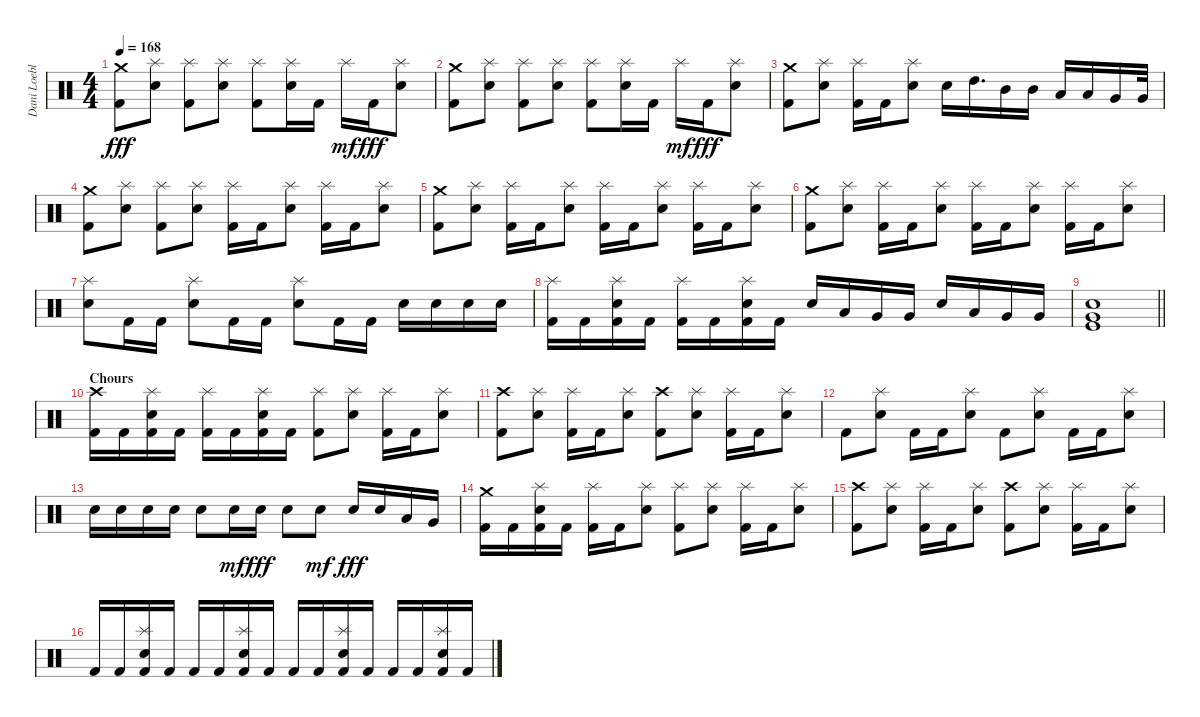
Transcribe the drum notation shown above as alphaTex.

\track ("Dani Loeble" "Dani Loebl") {instrument percussion}
\staff {score}
\articulation defaults
\ts (4 4)
\tempo 168
\clef neutral
\ks c
("Crash medium (hit)" "Kick (hit) 2").8{dy fff} ("Splash (hit)" "Electric Snare (hit)").8 ("Splash (hit)" "Kick (hit) 2").8 ("Splash (hit)" "Electric Snare (hit)").8 ("Splash (hit)" "Kick (hit) 2").8 ("Splash (hit)" "Electric Snare (hit)").16 "Kick (hit) 2".16 "Splash (hit)".16{dy mf} "Kick (hit) 2".16{dy fff} ("Splash (hit)" "Electric Snare (hit)").8 |
("Crash medium (hit)" "Kick (hit) 2").8 ("Splash (hit)" "Electric Snare (hit)").8 ("Splash (hit)" "Kick (hit) 2").8 ("Splash (hit)" "Electric Snare (hit)").8 ("Splash (hit)" "Kick (hit) 2").8 ("Splash (hit)" "Electric Snare (hit)").16 "Kick (hit) 2".16 "Splash (hit)".16{dy mf} "Kick (hit) 2".16{dy fff} ("Splash (hit)" "Electric Snare (hit)").8 |
("Crash medium (hit)" "Kick (hit) 2").8 ("Splash (hit)" "Electric Snare (hit)").8 ("Splash (hit)" "Kick (hit) 2").16 "Kick (hit) 2".16 ("Splash (hit)" "Electric Snare (hit)").8 "Electric Snare (hit)".16 "High Tom (hit)".16{d} "Mid Tom (hit)".16 "Mid Tom (hit)".16 "Low Tom (hit)".16 "Low Tom (hit)".16 "Very Low Tom (hit)".16 "Very Low Tom (hit)".32 |
("Crash medium (hit)" "Kick (hit) 2").8 ("Splash (hit)" "Electric Snare (hit)").8 ("Splash (hit)" "Kick (hit) 2").8 ("Splash (hit)" "Electric Snare (hit)").8 ("Splash (hit)" "Kick (hit) 2").16 "Kick (hit) 2".16 ("Splash (hit)" "Electric Snare (hit)").8 ("Splash (hit)" "Kick (hit) 2").16 "Kick (hit) 2".16 ("Splash (hit)" "Electric Snare (hit)").8 |
("Crash medium (hit)" "Kick (hit) 2").8 ("Splash (hit)" "Electric Snare (hit)").8 ("Splash (hit)" "Kick (hit) 2").16 "Kick (hit) 2".16 ("Splash (hit)" "Electric Snare (hit)").8 ("Splash (hit)" "Kick (hit) 2").16 "Kick (hit) 2".16 ("Splash (hit)" "Electric Snare (hit)").8 ("Splash (hit)" "Kick (hit) 2").16 "Kick (hit) 2".16 ("Splash (hit)" "Electric Snare (hit)").8 |
("Crash medium (hit)" "Kick (hit) 2").8 ("Splash (hit)" "Electric Snare (hit)").8 ("Splash (hit)" "Kick (hit) 2").16 "Kick (hit) 2".16 ("Splash (hit)" "Electric Snare (hit)").8 ("Splash (hit)" "Kick (hit) 2").16 "Kick (hit) 2".16 ("Splash (hit)" "Electric Snare (hit)").8 ("Splash (hit)" "Kick (hit) 2").16 "Kick (hit) 2".16 ("Splash (hit)" "Electric Snare (hit)").8 |
("Splash (hit)" "Electric Snare (hit)").8 "Kick (hit) 2".16 "Kick (hit) 2".16 ("Splash (hit)" "Electric Snare (hit)").8 "Kick (hit) 2".16 "Kick (hit) 2".16 ("Splash (hit)" "Electric Snare (hit)").8 "Kick (hit) 2".16 "Kick (hit) 2".16 "Electric Snare (hit)".16 "Electric Snare (hit)".16 "Electric Snare (hit)".16 "Electric Snare (hit)".16 |
("Splash (hit)" "Kick (hit) 2").16 "Kick (hit) 2".16 ("Splash (hit)" "Electric Snare (hit)" "Kick (hit) 2").16 "Kick (hit) 2".16 ("Splash (hit)" "Kick (hit) 2").16 "Kick (hit) 2".16 ("Splash (hit)" "Electric Snare (hit)" "Kick (hit) 2").16 "Kick (hit) 2".16 "Electric Snare (hit)".16 "Low Tom (hit)".16 "Very Low Tom (hit)".16 "Very Low Tom (hit)".16 "Electric Snare (hit)".16 "Low Tom (hit)".16 "Very Low Tom (hit)".16 "Very Low Tom (hit)".16 |
\barLineRight lightlight
("Electric Snare (hit)" "Very Low Tom (hit)" "Kick (hit)").1 |
\section ("" "Chours")
("Crash high (hit)" "Kick (hit) 2").16 "Kick (hit) 2".16 ("Splash (hit)" "Electric Snare (hit)" "Kick (hit) 2").16 "Kick (hit) 2".16 ("Splash (hit)" "Kick (hit) 2").16 "Kick (hit) 2".16 ("Splash (hit)" "Electric Snare (hit)" "Kick (hit) 2").16 "Kick (hit) 2".16 ("Splash (hit)" "Kick (hit) 2").8 ("Splash (hit)" "Electric Snare (hit)").8 ("Splash (hit)" "Kick (hit) 2").16 "Kick (hit) 2".16 ("Splash (hit)" "Electric Snare (hit)").8 |
("Crash high (hit)" "Kick (hit) 2").8 ("Splash (hit)" "Electric Snare (hit)").8 ("Splash (hit)" "Kick (hit) 2").16 "Kick (hit) 2".16 ("Splash (hit)" "Electric Snare (hit)").8 ("Crash high (hit)" "Kick (hit) 2").8 ("Splash (hit)" "Electric Snare (hit)").8 ("Splash (hit)" "Kick (hit) 2").16 "Kick (hit) 2".16 ("Splash (hit)" "Electric Snare (hit)").8 |
"Kick (hit) 2".8 ("Splash (hit)" "Electric Snare (hit)").8 "Kick (hit) 2".16 "Kick (hit) 2".16 ("Splash (hit)" "Electric Snare (hit)").8 "Kick (hit) 2".8 ("Splash (hit)" "Electric Snare (hit)").8 "Kick (hit) 2".16 "Kick (hit) 2".16 ("Splash (hit)" "Electric Snare (hit)").8 |
"Electric Snare (hit)".16 "Electric Snare (hit)".16 "Electric Snare (hit)".16 "Electric Snare (hit)".16 "Electric Snare (hit)".8 "Electric Snare (hit)".16{dy mf} "Electric Snare (hit)".16{dy fff} "Electric Snare (hit)".8 "Electric Snare (hit)".8{dy mf} "Electric Snare (hit)".16{dy fff} "Electric Snare (hit)".16 "Low Tom (hit)".16 "Very Low Tom (hit)".16 |
("Crash medium (hit)" "Kick (hit) 2").16 "Kick (hit) 2".16 ("Splash (hit)" "Electric Snare (hit)" "Kick (hit) 2").16 "Kick (hit) 2".16 ("Splash (hit)" "Kick (hit) 2").16 "Kick (hit) 2".16 ("Splash (hit)" "Electric Snare (hit)").8 ("Splash (hit)" "Kick (hit) 2").8 ("Splash (hit)" "Electric Snare (hit)").8 ("Splash (hit)" "Kick (hit) 2").16 "Kick (hit) 2".16 ("Splash (hit)" "Electric Snare (hit)").8 |
("Crash high (hit)" "Kick (hit) 2").8 ("Splash (hit)" "Electric Snare (hit)").8 ("Splash (hit)" "Kick (hit) 2").16 "Kick (hit) 2".16 ("Splash (hit)" "Electric Snare (hit)").8 ("Crash high (hit)" "Kick (hit) 2").8 ("Splash (hit)" "Electric Snare (hit)").8 ("Splash (hit)" "Kick (hit) 2").16 "Kick (hit) 2".16 ("Splash (hit)" "Electric Snare (hit)").8 |
"Kick (hit) 2".16 "Kick (hit) 2".16 ("Splash (hit)" "Electric Snare (hit)" "Kick (hit) 2").16 "Kick (hit) 2".16 "Kick (hit) 2".16 "Kick (hit) 2".16 ("Splash (hit)" "Electric Snare (hit)" "Kick (hit) 2").16 "Kick (hit) 2".16 "Kick (hit) 2".16 "Kick (hit) 2".16 ("Splash (hit)" "Electric Snare (hit)" "Kick (hit) 2").16 "Kick (hit) 2".16 "Kick (hit) 2".16 "Kick (hit) 2".16 ("Splash (hit)" "Electric Snare (hit)" "Kick (hit) 2").16 "Kick (hit) 2".16
